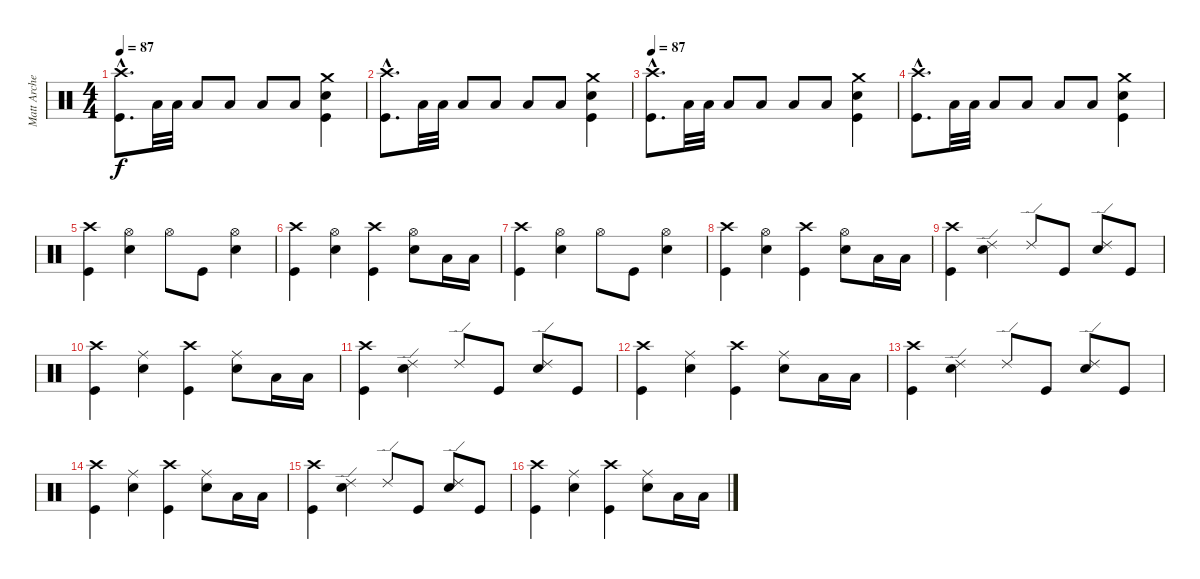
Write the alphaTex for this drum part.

\track ("Matt Archer" "Matt Arche") {instrument percussion}
\staff {score}
\articulation defaults
\ts (4 4)
\tempo 87
\clef neutral
\ks c
("Kick (hit)"{hac} "Crash high (hit)"{hac}).8{d dy f} "Low Tom (hit)".32 "Low Tom (hit)".32 "Low Tom (hit)".8 "Low Tom (hit)".8 "Low Tom (hit)".8 "Low Tom (hit)".8 ("Kick (hit)" "Snare (hit) 2" "Crash medium (hit)").4 |
("Kick (hit)"{hac} "Crash high (hit)"{hac}).8{d} "Low Tom (hit)".32 "Low Tom (hit)".32 "Low Tom (hit)".8 "Low Tom (hit)".8 "Low Tom (hit)".8 "Low Tom (hit)".8 ("Kick (hit)" "Snare (hit) 2" "Crash medium (hit)").4 |
\tempo 87
("Kick (hit)"{hac} "Crash high (hit)"{hac}).8{d} "Low Tom (hit)".32 "Low Tom (hit)".32 "Low Tom (hit)".8 "Low Tom (hit)".8 "Low Tom (hit)".8 "Low Tom (hit)".8 ("Kick (hit)" "Snare (hit) 2" "Crash medium (hit)").4 |
("Kick (hit)"{hac} "Crash high (hit)"{hac}).8{d} "Low Tom (hit)".32 "Low Tom (hit)".32 "Low Tom (hit)".8 "Low Tom (hit)".8 "Low Tom (hit)".8 "Low Tom (hit)".8 ("Kick (hit)" "Snare (hit) 2" "Crash medium (hit)").4 |
("Kick (hit)" "Crash high (hit)").4 ("Snare (hit) 2" "Hi-Hat (open)").4 "Hi-Hat (open)".8 "Kick (hit)".8 ("Snare (hit) 2" "Hi-Hat (open)").4 |
("Kick (hit)" "Crash high (hit)").4 ("Snare (hit) 2" "Hi-Hat (open)").4 ("Kick (hit)" "Crash high (hit)").4 ("Snare (hit) 2" "Hi-Hat (open)").8 "Low Tom (hit)".16 "Low Tom (hit)".16 |
("Kick (hit)" "Crash high (hit)").4 ("Snare (hit) 2" "Hi-Hat (open)").4 "Hi-Hat (open)".8 "Kick (hit)".8 ("Snare (hit) 2" "Hi-Hat (open)").4 |
("Kick (hit)" "Crash high (hit)").4 ("Snare (hit) 2" "Hi-Hat (open)").4 ("Kick (hit)" "Crash high (hit)").4 ("Snare (hit) 2" "Hi-Hat (open)").8 "Low Tom (hit)".16 "Low Tom (hit)".16 |
("Kick (hit)" "Crash high (hit)").4 ("Snare (hit) 2" "Ride (edge) 2").4 "Ride (edge) 2".8 "Kick (hit)".8 ("Snare (hit) 2" "Ride (edge) 2").8 "Kick (hit)".8 |
("Kick (hit)" "Crash high (hit)").4 ("Snare (hit) 2" "Ride (middle)").4 ("Kick (hit)" "Crash high (hit)").4 ("Snare (hit) 2" "Ride (middle)").8 "Low Tom (hit)".16 "Low Tom (hit)".16 |
("Kick (hit)" "Crash high (hit)").4 ("Snare (hit) 2" "Ride (edge) 2").4 "Ride (edge) 2".8 "Kick (hit)".8 ("Snare (hit) 2" "Ride (edge) 2").8 "Kick (hit)".8 |
("Kick (hit)" "Crash high (hit)").4 ("Snare (hit) 2" "Ride (middle)").4 ("Kick (hit)" "Crash high (hit)").4 ("Snare (hit) 2" "Ride (middle)").8 "Low Tom (hit)".16 "Low Tom (hit)".16 |
("Kick (hit)" "Crash high (hit)").4 ("Snare (hit) 2" "Ride (edge) 2").4 "Ride (edge) 2".8 "Kick (hit)".8 ("Snare (hit) 2" "Ride (edge) 2").8 "Kick (hit)".8 |
("Kick (hit)" "Crash high (hit)").4 ("Snare (hit) 2" "Ride (middle)").4 ("Kick (hit)" "Crash high (hit)").4 ("Snare (hit) 2" "Ride (middle)").8 "Low Tom (hit)".16 "Low Tom (hit)".16 |
("Kick (hit)" "Crash high (hit)").4 ("Snare (hit) 2" "Ride (edge) 2").4 "Ride (edge) 2".8 "Kick (hit)".8 ("Snare (hit) 2" "Ride (edge) 2").8 "Kick (hit)".8 |
("Kick (hit)" "Crash high (hit)").4 ("Snare (hit) 2" "Ride (middle)").4 ("Kick (hit)" "Crash high (hit)").4 ("Snare (hit) 2" "Ride (middle)").8 "Low Tom (hit)".16 "Low Tom (hit)".16
